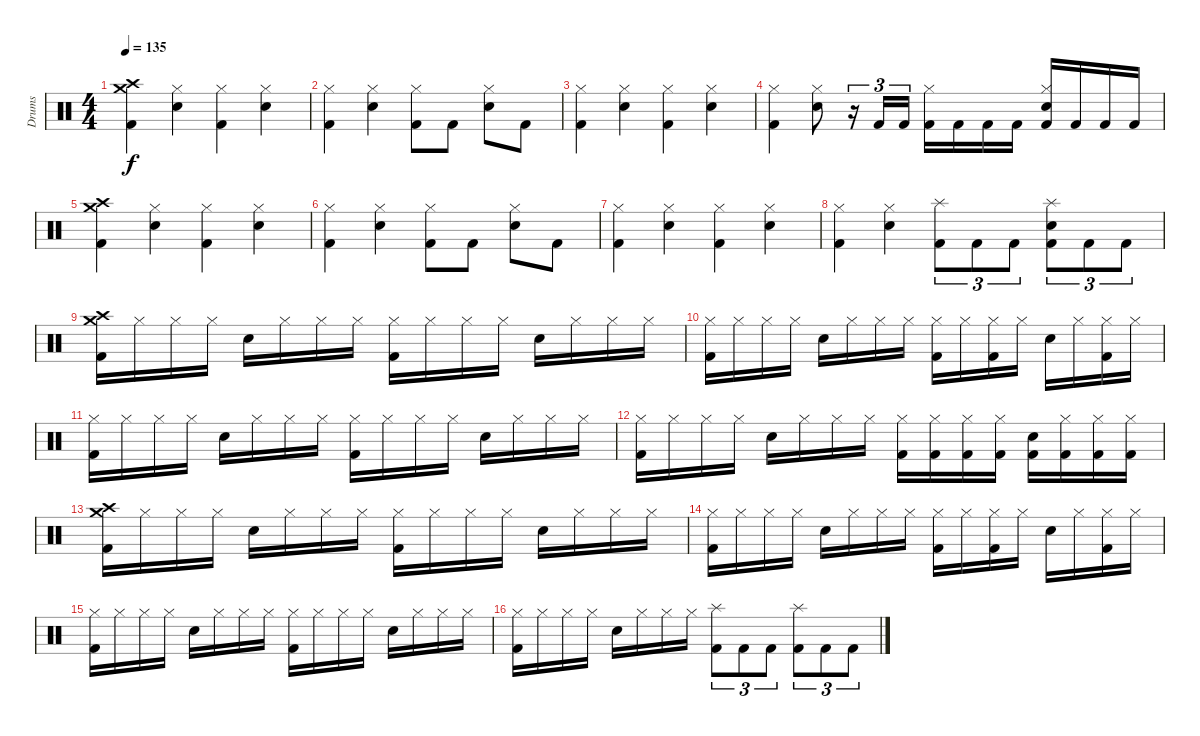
\track ("Drums" "Drums") {instrument percussion}
\staff {score}
\articulation defaults
\ts (4 4)
\tempo 135
\clef neutral
\ks c
("Crash high (hit)" "Crash medium (hit)" "Kick (hit) 2").4{dy f} ("Hi-Hat (closed)" "Electric Snare (hit)").4 ("Hi-Hat (closed)" "Kick (hit) 2").4 ("Hi-Hat (closed)" "Electric Snare (hit)").4 |
("Hi-Hat (closed)" "Kick (hit) 2").4 ("Hi-Hat (closed)" "Electric Snare (hit)").4 ("Hi-Hat (closed)" "Kick (hit) 2").8 "Kick (hit) 2".8 ("Hi-Hat (closed)" "Electric Snare (hit)").8 "Kick (hit) 2".8 |
("Hi-Hat (closed)" "Kick (hit) 2").4 ("Hi-Hat (closed)" "Electric Snare (hit)").4 ("Hi-Hat (closed)" "Kick (hit) 2").4 ("Hi-Hat (closed)" "Electric Snare (hit)").4 |
("Hi-Hat (closed)" "Kick (hit) 2").4 ("Hi-Hat (closed)" "Electric Snare (hit)").8 r.16{tu (3 2)} "Kick (hit) 2".16{tu (3 2)} "Kick (hit) 2".16{tu (3 2)} ("Hi-Hat (closed)" "Kick (hit) 2").16 "Kick (hit) 2".16 "Kick (hit) 2".16 "Kick (hit) 2".16 ("Hi-Hat (closed)" "Electric Snare (hit)" "Kick (hit) 2").16 "Kick (hit) 2".16 "Kick (hit) 2".16 "Kick (hit) 2".16 |
("Crash high (hit)" "Crash medium (hit)" "Kick (hit) 2").4 ("Hi-Hat (closed)" "Electric Snare (hit)").4 ("Hi-Hat (closed)" "Kick (hit) 2").4 ("Hi-Hat (closed)" "Electric Snare (hit)").4 |
("Hi-Hat (closed)" "Kick (hit) 2").4 ("Hi-Hat (closed)" "Electric Snare (hit)").4 ("Hi-Hat (closed)" "Kick (hit) 2").8 "Kick (hit) 2".8 ("Hi-Hat (closed)" "Electric Snare (hit)").8 "Kick (hit) 2".8 |
("Hi-Hat (closed)" "Kick (hit) 2").4 ("Hi-Hat (closed)" "Electric Snare (hit)").4 ("Hi-Hat (closed)" "Kick (hit) 2").4 ("Hi-Hat (closed)" "Electric Snare (hit)").4 |
("Hi-Hat (closed)" "Kick (hit) 2").4 ("Hi-Hat (closed)" "Electric Snare (hit)").4 ("Splash (hit)" "Kick (hit) 2").8{tu (3 2)} "Kick (hit) 2".8{tu (3 2)} "Kick (hit) 2".8{tu (3 2)} ("Splash (hit)" "Electric Snare (hit)" "Kick (hit) 2").8{tu (3 2)} "Kick (hit) 2".8{tu (3 2)} "Kick (hit) 2".8{tu (3 2)} |
("Crash medium (hit)" "Crash high (hit)" "Kick (hit) 2").16 "Hi-Hat (closed)".16 "Hi-Hat (closed)".16 "Hi-Hat (closed)".16 "Electric Snare (hit)".16 "Hi-Hat (closed)".16 "Hi-Hat (closed)".16 "Hi-Hat (closed)".16 ("Hi-Hat (closed)" "Kick (hit) 2").16 "Hi-Hat (closed)".16 "Hi-Hat (closed)".16 "Hi-Hat (closed)".16 "Electric Snare (hit)".16 "Hi-Hat (closed)".16 "Hi-Hat (closed)".16 "Hi-Hat (closed)".16 |
("Hi-Hat (closed)" "Kick (hit) 2").16 "Hi-Hat (closed)".16 "Hi-Hat (closed)".16 "Hi-Hat (closed)".16 "Electric Snare (hit)".16 "Hi-Hat (closed)".16 "Hi-Hat (closed)".16 "Hi-Hat (closed)".16 ("Hi-Hat (closed)" "Kick (hit) 2").16 "Hi-Hat (closed)".16 ("Hi-Hat (closed)" "Kick (hit) 2").16 "Hi-Hat (closed)".16 "Electric Snare (hit)".16 "Hi-Hat (closed)".16 ("Hi-Hat (closed)" "Kick (hit) 2").16 "Hi-Hat (closed)".16 |
("Hi-Hat (closed)" "Kick (hit) 2").16 "Hi-Hat (closed)".16 "Hi-Hat (closed)".16 "Hi-Hat (closed)".16 "Electric Snare (hit)".16 "Hi-Hat (closed)".16 "Hi-Hat (closed)".16 "Hi-Hat (closed)".16 ("Hi-Hat (closed)" "Kick (hit) 2").16 "Hi-Hat (closed)".16 "Hi-Hat (closed)".16 "Hi-Hat (closed)".16 "Electric Snare (hit)".16 "Hi-Hat (closed)".16 "Hi-Hat (closed)".16 "Hi-Hat (closed)".16 |
("Hi-Hat (closed)" "Kick (hit) 2").16 "Hi-Hat (closed)".16 "Hi-Hat (closed)".16 "Hi-Hat (closed)".16 "Electric Snare (hit)".16 "Hi-Hat (closed)".16 "Hi-Hat (closed)".16 "Hi-Hat (closed)".16 ("Hi-Hat (closed)" "Kick (hit) 2").16 ("Hi-Hat (closed)" "Kick (hit) 2").16 ("Hi-Hat (closed)" "Kick (hit) 2").16 ("Hi-Hat (closed)" "Kick (hit) 2").16 ("Electric Snare (hit)" "Kick (hit) 2").16 ("Hi-Hat (closed)" "Kick (hit) 2").16 ("Hi-Hat (closed)" "Kick (hit) 2").16 ("Hi-Hat (closed)" "Kick (hit) 2").16 |
("Crash medium (hit)" "Crash high (hit)" "Kick (hit) 2").16 "Hi-Hat (closed)".16 "Hi-Hat (closed)".16 "Hi-Hat (closed)".16 "Electric Snare (hit)".16 "Hi-Hat (closed)".16 "Hi-Hat (closed)".16 "Hi-Hat (closed)".16 ("Hi-Hat (closed)" "Kick (hit) 2").16 "Hi-Hat (closed)".16 "Hi-Hat (closed)".16 "Hi-Hat (closed)".16 "Electric Snare (hit)".16 "Hi-Hat (closed)".16 "Hi-Hat (closed)".16 "Hi-Hat (closed)".16 |
("Hi-Hat (closed)" "Kick (hit) 2").16 "Hi-Hat (closed)".16 "Hi-Hat (closed)".16 "Hi-Hat (closed)".16 "Electric Snare (hit)".16 "Hi-Hat (closed)".16 "Hi-Hat (closed)".16 "Hi-Hat (closed)".16 ("Hi-Hat (closed)" "Kick (hit) 2").16 "Hi-Hat (closed)".16 ("Hi-Hat (closed)" "Kick (hit) 2").16 "Hi-Hat (closed)".16 "Electric Snare (hit)".16 "Hi-Hat (closed)".16 ("Hi-Hat (closed)" "Kick (hit) 2").16 "Hi-Hat (closed)".16 |
("Hi-Hat (closed)" "Kick (hit) 2").16 "Hi-Hat (closed)".16 "Hi-Hat (closed)".16 "Hi-Hat (closed)".16 "Electric Snare (hit)".16 "Hi-Hat (closed)".16 "Hi-Hat (closed)".16 "Hi-Hat (closed)".16 ("Hi-Hat (closed)" "Kick (hit) 2").16 "Hi-Hat (closed)".16 "Hi-Hat (closed)".16 "Hi-Hat (closed)".16 "Electric Snare (hit)".16 "Hi-Hat (closed)".16 "Hi-Hat (closed)".16 "Hi-Hat (closed)".16 |
("Hi-Hat (closed)" "Kick (hit) 2").16 "Hi-Hat (closed)".16 "Hi-Hat (closed)".16 "Hi-Hat (closed)".16 "Electric Snare (hit)".16 "Hi-Hat (closed)".16 "Hi-Hat (closed)".16 "Hi-Hat (closed)".16 ("Splash (hit)" "Kick (hit) 2").8{tu (3 2)} "Kick (hit) 2".8{tu (3 2)} "Kick (hit) 2".8{tu (3 2)} ("Splash (hit)" "Kick (hit) 2").8{tu (3 2)} "Kick (hit) 2".8{tu (3 2)} "Kick (hit) 2".8{tu (3 2)}
